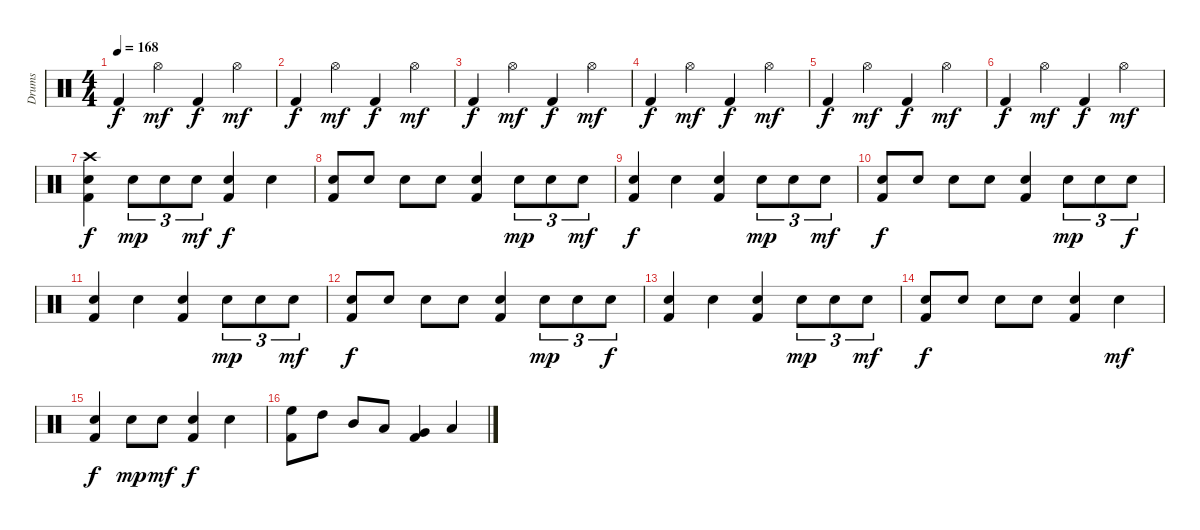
\track ("Drums" "Drums") {instrument percussion}
\staff {score}
\articulation defaults
\ts (4 4)
\tempo 168
\clef neutral
\ks c "Kick (hit) 2".4{dy f} "Hi-Hat (open)".4{dy mf} "Kick (hit) 2".4{dy f} "Hi-Hat (open)".4{dy mf}
|
"Kick (hit) 2".4{dy f} "Hi-Hat (open)".4{dy mf} "Kick (hit) 2".4{dy f} "Hi-Hat (open)".4{dy mf} |
"Kick (hit) 2".4{dy f} "Hi-Hat (open)".4{dy mf} "Kick (hit) 2".4{dy f} "Hi-Hat (open)".4{dy mf} |
"Kick (hit) 2".4{dy f} "Hi-Hat (open)".4{dy mf} "Kick (hit) 2".4{dy f} "Hi-Hat (open)".4{dy mf} |
"Kick (hit) 2".4{dy f} "Hi-Hat (open)".4{dy mf} "Kick (hit) 2".4{dy f} "Hi-Hat (open)".4{dy mf} |
"Kick (hit) 2".4{dy f} "Hi-Hat (open)".4{dy mf} "Kick (hit) 2".4{dy f} "Hi-Hat (open)".4{dy mf} |
("Kick (hit) 2" "Electric Snare (hit)" "Crash high (hit)").4{dy f} "Electric Snare (hit)".8{tu (3 2) dy mp} "Electric Snare (hit)".8{tu (3 2)} "Electric Snare (hit)".8{tu (3 2) dy mf} ("Kick (hit) 2" "Electric Snare (hit)").4{dy f} "Electric Snare (hit)".4 |
("Kick (hit) 2" "Electric Snare (hit)").8 "Electric Snare (hit)".8 "Electric Snare (hit)".8 "Electric Snare (hit)".8 ("Kick (hit) 2" "Electric Snare (hit)").4 "Electric Snare (hit)".8{tu (3 2) dy mp} "Electric Snare (hit)".8{tu (3 2)} "Electric Snare (hit)".8{tu (3 2) dy mf} |
("Kick (hit) 2" "Electric Snare (hit)").4{dy f} "Electric Snare (hit)".4 ("Kick (hit) 2" "Electric Snare (hit)").4 "Electric Snare (hit)".8{tu (3 2) dy mp} "Electric Snare (hit)".8{tu (3 2)} "Electric Snare (hit)".8{tu (3 2) dy mf} |
("Kick (hit) 2" "Electric Snare (hit)").8{dy f} "Electric Snare (hit)".8 "Electric Snare (hit)".8 "Electric Snare (hit)".8 ("Kick (hit) 2" "Electric Snare (hit)").4 "Electric Snare (hit)".8{tu (3 2) dy mp} "Electric Snare (hit)".8{tu (3 2)} "Electric Snare (hit)".8{tu (3 2) dy f} |
("Kick (hit) 2" "Electric Snare (hit)").4 "Electric Snare (hit)".4 ("Kick (hit) 2" "Electric Snare (hit)").4 "Electric Snare (hit)".8{tu (3 2) dy mp} "Electric Snare (hit)".8{tu (3 2)} "Electric Snare (hit)".8{tu (3 2) dy mf} |
("Kick (hit) 2" "Electric Snare (hit)").8{dy f} "Electric Snare (hit)".8 "Electric Snare (hit)".8 "Electric Snare (hit)".8 ("Kick (hit) 2" "Electric Snare (hit)").4 "Electric Snare (hit)".8{tu (3 2) dy mp} "Electric Snare (hit)".8{tu (3 2)} "Electric Snare (hit)".8{tu (3 2) dy f} |
("Kick (hit) 2" "Electric Snare (hit)").4 "Electric Snare (hit)".4 ("Kick (hit) 2" "Electric Snare (hit)").4 "Electric Snare (hit)".8{tu (3 2) dy mp} "Electric Snare (hit)".8{tu (3 2)} "Electric Snare (hit)".8{tu (3 2) dy mf} |
("Kick (hit) 2" "Electric Snare (hit)").8{dy f} "Electric Snare (hit)".8 "Electric Snare (hit)".8 "Electric Snare (hit)".8 ("Kick (hit) 2" "Electric Snare (hit)").4 "Electric Snare (hit)".4{dy mf} |
("Kick (hit) 2" "Electric Snare (hit)").4{dy f} "Electric Snare (hit)".8{dy mp} "Electric Snare (hit)".8{dy mf} ("Kick (hit) 2" "Electric Snare (hit)").4{dy f} "Electric Snare (hit)".4 |
("Kick (hit) 2" "High Floor Tom (hit)").8 "High Tom (hit)".8 "Mid Tom (hit)".8 "Low Tom (hit)".8 ("Kick (hit) 2" "Very Low Tom (hit)").4 "Low Floor Tom (hit)".4
